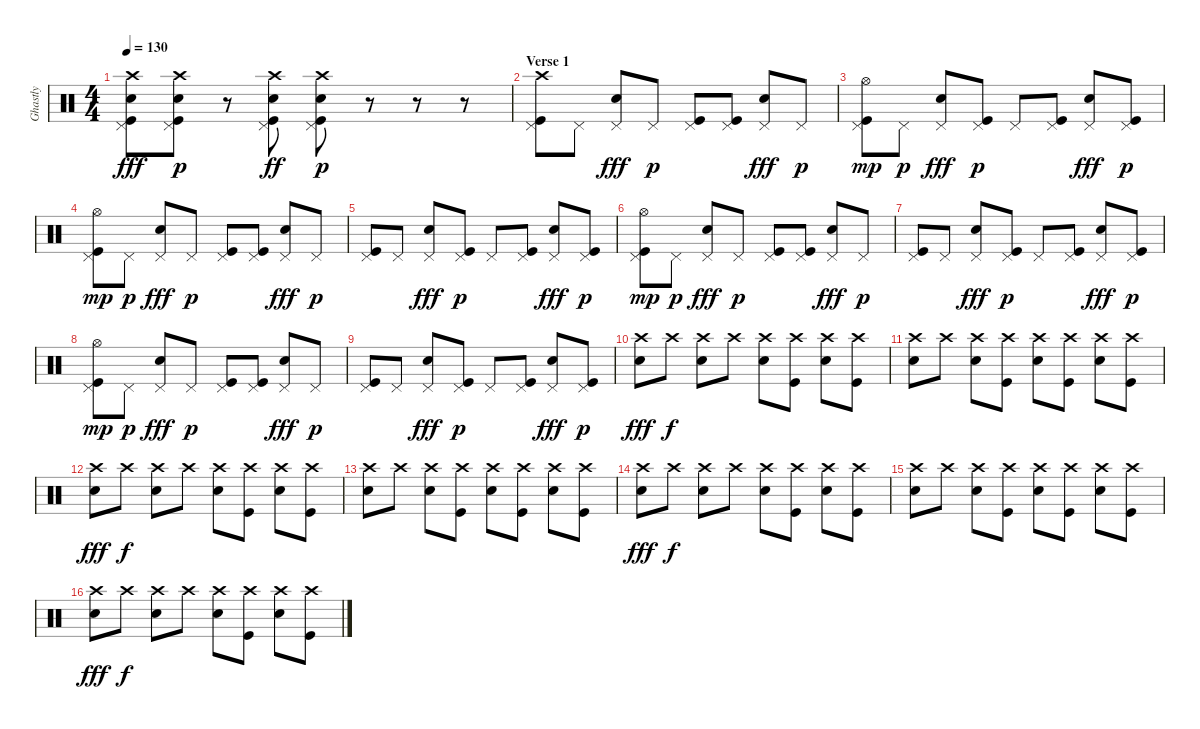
\track ("Ghastly" "Ghastly") {instrument percussion}
\staff {score}
\articulation defaults
\ts (4 4)
\tempo 130
\clef neutral
\ks c
("Crash high (hit)" "Pedal Hi-Hat (hit)" "Kick (hit)" "Electric Snare (hit)").8{dy fff} ("Crash high (hit)" "Pedal Hi-Hat (hit)" "Kick (hit)" "Electric Snare (hit)").8{dy p} r.8 ("Crash high (hit)" "Pedal Hi-Hat (hit)" "Kick (hit)" "Electric Snare (hit)").8{dy ff} ("Crash high (hit)" "Pedal Hi-Hat (hit)" "Kick (hit)" "Electric Snare (hit)").8{dy p} r.8 r.8 r.8 |
\section ("" "Verse 1")
("Crash high (hit)" "Pedal Hi-Hat (hit)" "Kick (hit)").8 "Pedal Hi-Hat (hit)".8 ("Pedal Hi-Hat (hit)" "Electric Snare (hit)").8{dy fff} "Pedal Hi-Hat (hit)".8{dy p} ("Pedal Hi-Hat (hit)" "Kick (hit)").8 ("Pedal Hi-Hat (hit)" "Kick (hit)").8 ("Pedal Hi-Hat (hit)" "Electric Snare (hit)").8{dy fff} "Pedal Hi-Hat (hit)".8{dy p} |
("Pedal Hi-Hat (hit)" "Kick (hit)" "Hi-Hat (open)").8{dy mp} "Pedal Hi-Hat (hit)".8{dy p} ("Pedal Hi-Hat (hit)" "Electric Snare (hit)").8{dy fff} ("Pedal Hi-Hat (hit)" "Kick (hit)").8{dy p} "Pedal Hi-Hat (hit)".8 ("Pedal Hi-Hat (hit)" "Kick (hit)").8 ("Pedal Hi-Hat (hit)" "Electric Snare (hit)").8{dy fff} ("Pedal Hi-Hat (hit)" "Kick (hit)").8{dy p} |
("Pedal Hi-Hat (hit)" "Kick (hit)" "Hi-Hat (open)").8{dy mp} "Pedal Hi-Hat (hit)".8{dy p} ("Pedal Hi-Hat (hit)" "Electric Snare (hit)").8{dy fff} "Pedal Hi-Hat (hit)".8{dy p} ("Pedal Hi-Hat (hit)" "Kick (hit)").8 ("Pedal Hi-Hat (hit)" "Kick (hit)").8 ("Pedal Hi-Hat (hit)" "Electric Snare (hit)").8{dy fff} "Pedal Hi-Hat (hit)".8{dy p} |
("Pedal Hi-Hat (hit)" "Kick (hit)").8 "Pedal Hi-Hat (hit)".8 ("Pedal Hi-Hat (hit)" "Electric Snare (hit)").8{dy fff} ("Pedal Hi-Hat (hit)" "Kick (hit)").8{dy p} "Pedal Hi-Hat (hit)".8 ("Pedal Hi-Hat (hit)" "Kick (hit)").8 ("Pedal Hi-Hat (hit)" "Electric Snare (hit)").8{dy fff} ("Pedal Hi-Hat (hit)" "Kick (hit)").8{dy p} |
("Pedal Hi-Hat (hit)" "Kick (hit)" "Hi-Hat (open)").8{dy mp} "Pedal Hi-Hat (hit)".8{dy p} ("Pedal Hi-Hat (hit)" "Electric Snare (hit)").8{dy fff} "Pedal Hi-Hat (hit)".8{dy p} ("Pedal Hi-Hat (hit)" "Kick (hit)").8 ("Pedal Hi-Hat (hit)" "Kick (hit)").8 ("Pedal Hi-Hat (hit)" "Electric Snare (hit)").8{dy fff} "Pedal Hi-Hat (hit)".8{dy p} |
("Pedal Hi-Hat (hit)" "Kick (hit)").8 "Pedal Hi-Hat (hit)".8 ("Pedal Hi-Hat (hit)" "Electric Snare (hit)").8{dy fff} ("Pedal Hi-Hat (hit)" "Kick (hit)").8{dy p} "Pedal Hi-Hat (hit)".8 ("Pedal Hi-Hat (hit)" "Kick (hit)").8 ("Pedal Hi-Hat (hit)" "Electric Snare (hit)").8{dy fff} ("Pedal Hi-Hat (hit)" "Kick (hit)").8{dy p} |
("Pedal Hi-Hat (hit)" "Kick (hit)" "Hi-Hat (open)").8{dy mp} "Pedal Hi-Hat (hit)".8{dy p} ("Pedal Hi-Hat (hit)" "Electric Snare (hit)").8{dy fff} "Pedal Hi-Hat (hit)".8{dy p} ("Pedal Hi-Hat (hit)" "Kick (hit)").8 ("Pedal Hi-Hat (hit)" "Kick (hit)").8 ("Pedal Hi-Hat (hit)" "Electric Snare (hit)").8{dy fff} "Pedal Hi-Hat (hit)".8{dy p} |
("Pedal Hi-Hat (hit)" "Kick (hit)").8 "Pedal Hi-Hat (hit)".8 ("Pedal Hi-Hat (hit)" "Electric Snare (hit)").8{dy fff} ("Pedal Hi-Hat (hit)" "Kick (hit)").8{dy p} "Pedal Hi-Hat (hit)".8 ("Pedal Hi-Hat (hit)" "Kick (hit)").8 ("Pedal Hi-Hat (hit)" "Electric Snare (hit)").8{dy fff} ("Pedal Hi-Hat (hit)" "Kick (hit)").8{dy p} |
("Crash high (hit)" "Electric Snare (hit)").8{dy fff} "Crash high (hit)".8{dy f} ("Crash high (hit)" "Electric Snare (hit)").8 "Crash high (hit)".8 ("Crash high (hit)" "Electric Snare (hit)").8 ("Crash high (hit)" "Kick (hit)").8 ("Crash high (hit)" "Electric Snare (hit)").8 ("Crash high (hit)" "Kick (hit)").8 |
("Crash high (hit)" "Electric Snare (hit)").8 "Crash high (hit)".8 ("Crash high (hit)" "Electric Snare (hit)").8 ("Crash high (hit)" "Kick (hit)").8 ("Crash high (hit)" "Electric Snare (hit)").8 ("Crash high (hit)" "Kick (hit)").8 ("Crash high (hit)" "Electric Snare (hit)").8 ("Crash high (hit)" "Kick (hit)").8 |
("Crash high (hit)" "Electric Snare (hit)").8{dy fff} "Crash high (hit)".8{dy f} ("Crash high (hit)" "Electric Snare (hit)").8 "Crash high (hit)".8 ("Crash high (hit)" "Electric Snare (hit)").8 ("Crash high (hit)" "Kick (hit)").8 ("Crash high (hit)" "Electric Snare (hit)").8 ("Crash high (hit)" "Kick (hit)").8 |
("Crash high (hit)" "Electric Snare (hit)").8 "Crash high (hit)".8 ("Crash high (hit)" "Electric Snare (hit)").8 ("Crash high (hit)" "Kick (hit)").8 ("Crash high (hit)" "Electric Snare (hit)").8 ("Crash high (hit)" "Kick (hit)").8 ("Crash high (hit)" "Electric Snare (hit)").8 ("Crash high (hit)" "Kick (hit)").8 |
("Crash high (hit)" "Electric Snare (hit)").8{dy fff} "Crash high (hit)".8{dy f} ("Crash high (hit)" "Electric Snare (hit)").8 "Crash high (hit)".8 ("Crash high (hit)" "Electric Snare (hit)").8 ("Crash high (hit)" "Kick (hit)").8 ("Crash high (hit)" "Electric Snare (hit)").8 ("Crash high (hit)" "Kick (hit)").8 |
("Crash high (hit)" "Electric Snare (hit)").8 "Crash high (hit)".8 ("Crash high (hit)" "Electric Snare (hit)").8 ("Crash high (hit)" "Kick (hit)").8 ("Crash high (hit)" "Electric Snare (hit)").8 ("Crash high (hit)" "Kick (hit)").8 ("Crash high (hit)" "Electric Snare (hit)").8 ("Crash high (hit)" "Kick (hit)").8 |
("Crash high (hit)" "Electric Snare (hit)").8{dy fff} "Crash high (hit)".8{dy f} ("Crash high (hit)" "Electric Snare (hit)").8 "Crash high (hit)".8 ("Crash high (hit)" "Electric Snare (hit)").8 ("Crash high (hit)" "Kick (hit)").8 ("Crash high (hit)" "Electric Snare (hit)").8 ("Crash high (hit)" "Kick (hit)").8
